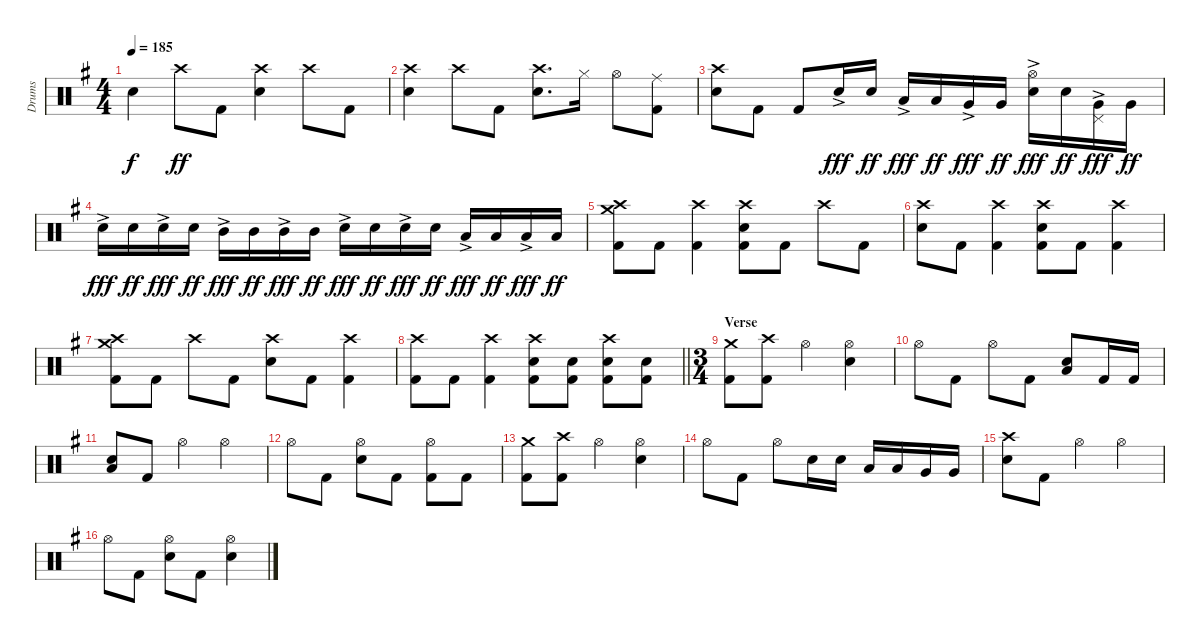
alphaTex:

\track ("Drums" "Drums") {instrument percussion}
\staff {score}
\articulation defaults
\ts (4 4)
\tempo 185
\clef neutral
\ks g "Snare (hit)"{t}.4{dy f} "Crash high (hit)".8{dy ff} "Kick (hit) 2".8
("Crash high (hit)" "Electric Snare (hit)").4 "Crash high (hit)".8 "Kick (hit) 2".8 |
("Crash high (hit)" "Electric Snare (hit)").4 "Crash high (hit)".8 "Kick (hit) 2".8 ("Crash high (hit)" "Electric Snare (hit)").8{d} "Hi-Hat (closed)".16 "Hi-Hat (open)".8 ("Ride (middle)" "Kick (hit) 2").8 |
("Crash high (hit)" "Electric Snare (hit)").8 "Kick (hit) 2".8 "Kick (hit) 2".8 "Electric Snare (hit)"{ac}.16{dy fff} "Electric Snare (hit)".16{dy ff} "Low Tom (hit)"{ac}.16{dy fff} "Low Tom (hit)".16{dy ff} "Very Low Tom (hit)"{ac}.16{dy fff} "Very Low Tom (hit)".16{dy ff} ("Hi-Hat (open)" "Electric Snare (hit)"{ac}).16{dy fff} "Electric Snare (hit)".16{dy ff} ("Pedal Hi-Hat (hit)" "Very Low Tom (hit)"{ac}).16{dy fff} "Very Low Tom (hit)".16{dy ff} |
"Electric Snare (hit)"{ac}.16{dy fff} "Electric Snare (hit)".16{dy ff} "Electric Snare (hit)"{ac}.16{dy fff} "Electric Snare (hit)".16{dy ff} "Mid Tom (hit)"{ac}.16{dy fff} "Mid Tom (hit)".16{dy ff} "Mid Tom (hit)"{ac}.16{dy fff} "Mid Tom (hit)".16{dy ff} "Electric Snare (hit)"{ac}.16{dy fff} "Electric Snare (hit)".16{dy ff} "Electric Snare (hit)"{ac}.16{dy fff} "Electric Snare (hit)".16{dy ff} "Low Tom (hit)"{ac}.16{dy fff} "Low Tom (hit)".16{dy ff} "Low Tom (hit)"{ac}.16{dy fff} "Low Tom (hit)".16{dy ff} |
("Crash medium (hit)" "Crash high (hit)" "Kick (hit) 2").8 "Kick (hit) 2".8 ("Crash high (hit)" "Kick (hit) 2").4 ("Crash high (hit)" "Electric Snare (hit)" "Kick (hit) 2").8 "Kick (hit) 2".8 "Crash high (hit)".8 "Kick (hit) 2".8 |
("Crash high (hit)" "Electric Snare (hit)").8 "Kick (hit) 2".8 ("Crash high (hit)" "Kick (hit) 2").4 ("Crash high (hit)" "Electric Snare (hit)" "Kick (hit) 2").8 "Kick (hit) 2".8 ("Crash high (hit)" "Kick (hit) 2").4 |
("Crash medium (hit)" "Crash high (hit)" "Kick (hit) 2").8 "Kick (hit) 2".8 "Crash high (hit)".8 "Kick (hit) 2".8 ("Crash high (hit)" "Electric Snare (hit)").8 "Kick (hit) 2".8 ("Crash high (hit)" "Kick (hit) 2").4 |
\barLineRight lightlight
("Crash high (hit)" "Kick (hit) 2").8 "Kick (hit) 2".8 ("Crash high (hit)" "Kick (hit) 2").4 ("Crash high (hit)" "Electric Snare (hit)" "Kick (hit) 2").8 ("Electric Snare (hit)" "Kick (hit) 2").8 ("Crash high (hit)" "Electric Snare (hit)" "Kick (hit) 2").8 ("Electric Snare (hit)" "Kick (hit) 2").8 |
\ts (3 4)
\section ("" "Verse")
("Crash medium (hit)" "Kick (hit) 2").8 ("Crash high (hit)" "Kick (hit) 2").8 "Hi-Hat (open)".4 ("Hi-Hat (open)" "Electric Snare (hit)").4 |
"Hi-Hat (open)".8 "Kick (hit) 2".8 "Hi-Hat (open)".8 "Kick (hit) 2".8 ("Low Tom (hit)" "Electric Snare (hit)").8{bu 60} "Kick (hit) 2".16 "Kick (hit) 2".16 |
("Low Tom (hit)" "Electric Snare (hit)").8{bu 60} "Kick (hit) 2".8 "Hi-Hat (open)".4 "Hi-Hat (open)".4 |
"Hi-Hat (open)".8 "Kick (hit) 2".8 ("Hi-Hat (open)" "Electric Snare (hit)").8 "Kick (hit) 2".8 ("Hi-Hat (open)" "Kick (hit) 2").8 "Kick (hit) 2".8 |
("Crash medium (hit)" "Kick (hit) 2").8 ("Crash high (hit)" "Kick (hit) 2").8 "Hi-Hat (open)".4 ("Hi-Hat (open)" "Electric Snare (hit)").4 |
"Hi-Hat (open)".8 "Kick (hit) 2".8 "Hi-Hat (open)".8 "Electric Snare (hit)".16 "Electric Snare (hit)".16 "Low Tom (hit)".16 "Low Tom (hit)".16 "Very Low Tom (hit)".16 "Very Low Tom (hit)".16 |
("Crash high (hit)" "Electric Snare (hit)").8 "Kick (hit) 2".8 "Hi-Hat (open)".4 "Hi-Hat (open)".4 |
"Hi-Hat (open)".8 "Kick (hit) 2".8 ("Hi-Hat (open)" "Electric Snare (hit)").8 "Kick (hit) 2".8 ("Hi-Hat (open)" "Electric Snare (hit)").4
